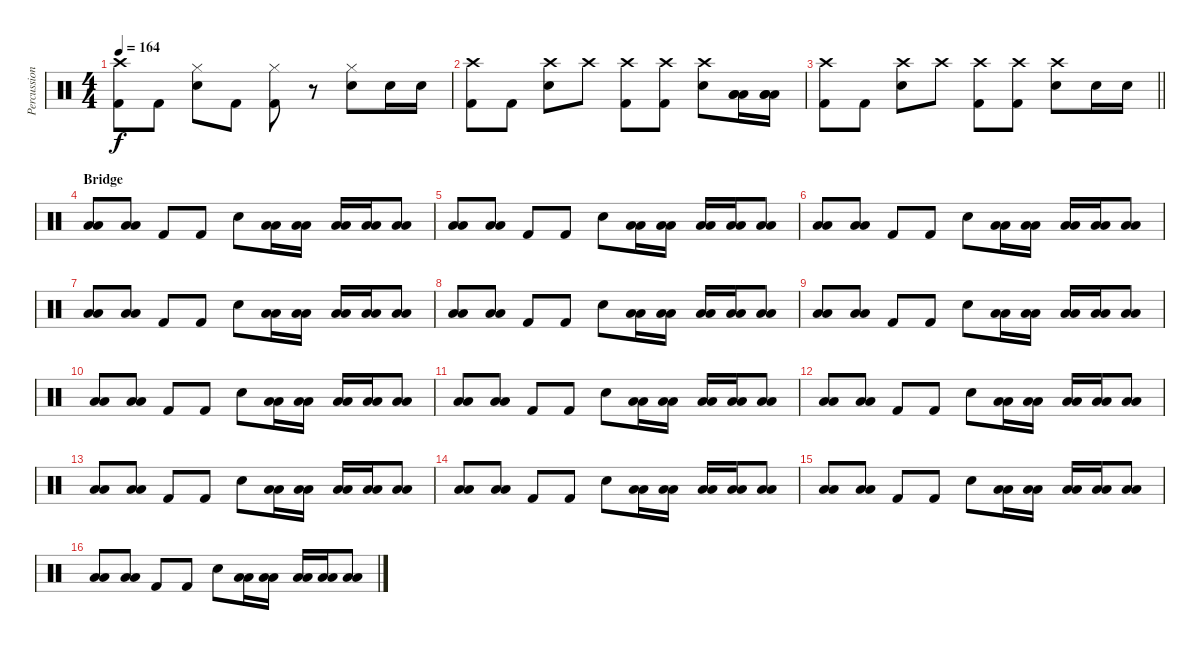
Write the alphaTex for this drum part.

\track ("Percussion" "Percussion") {instrument percussion}
\staff {score}
\articulation defaults
\ts (4 4)
\tempo 164
\clef neutral
\ks c
("Kick (hit) 2" "Crash high (hit)").8{dy f} "Kick (hit) 2".8 ("Snare (hit) 2" "Hi-Hat (closed)").8 "Kick (hit) 2".8 ("Kick (hit) 2" "Hi-Hat (closed)").8 r.8 ("Snare (hit) 2" "Hi-Hat (closed)").8 "Snare (hit) 2".16 "Snare (hit) 2".16 |
("Kick (hit) 2" "Crash high (hit)").8 "Kick (hit) 2".8 ("Crash high (hit)" "Snare (hit) 2").8 "Crash high (hit)".8 ("Kick (hit) 2" "Crash high (hit)").8 ("Kick (hit) 2" "Crash high (hit)").8 ("Crash high (hit)" "Snare (hit) 2").8 ("Low Floor Tom (hit)" "Low Floor Tom (hit)" "Low Floor Tom (hit)").16 ("Low Floor Tom (hit)" "Low Floor Tom (hit)" "Low Floor Tom (hit)").16 |
\barLineRight lightlight
("Kick (hit) 2" "Crash high (hit)").8 "Kick (hit) 2".8 ("Crash high (hit)" "Snare (hit) 2").8 "Crash high (hit)".8 ("Kick (hit) 2" "Crash high (hit)").8 ("Kick (hit) 2" "Crash high (hit)").8 ("Crash high (hit)" "Snare (hit) 2").8 "Snare (hit) 2".16 "Snare (hit) 2".16 |
\section ("" "Bridge")
("Low Floor Tom (hit)" "Low Tom (hit)").8 ("Low Floor Tom (hit)" "Low Tom (hit)").8 "Kick (hit) 2".8 "Kick (hit) 2".8 "Snare (hit) 2".8 ("Low Tom (hit)" "Low Tom (hit)").16 ("Low Tom (hit)" "Low Tom (hit)").16 ("Low Floor Tom (hit)" "Low Floor Tom (hit)").16 ("Low Floor Tom (hit)" "Low Floor Tom (hit)").16 ("Low Floor Tom (hit)" "Low Floor Tom (hit)").8 |
("Low Floor Tom (hit)" "Low Tom (hit)").8 ("Low Floor Tom (hit)" "Low Tom (hit)").8 "Kick (hit) 2".8 "Kick (hit) 2".8 "Snare (hit) 2".8 ("Low Tom (hit)" "Low Tom (hit)").16 ("Low Tom (hit)" "Low Tom (hit)").16 ("Low Floor Tom (hit)" "Low Floor Tom (hit)").16 ("Low Floor Tom (hit)" "Low Floor Tom (hit)").16 ("Low Floor Tom (hit)" "Low Floor Tom (hit)").8 |
("Low Floor Tom (hit)" "Low Tom (hit)").8 ("Low Floor Tom (hit)" "Low Tom (hit)").8 "Kick (hit) 2".8 "Kick (hit) 2".8 "Snare (hit) 2".8 ("Low Tom (hit)" "Low Tom (hit)").16 ("Low Tom (hit)" "Low Tom (hit)").16 ("Low Floor Tom (hit)" "Low Floor Tom (hit)").16 ("Low Floor Tom (hit)" "Low Floor Tom (hit)").16 ("Low Floor Tom (hit)" "Low Floor Tom (hit)").8 |
("Low Floor Tom (hit)" "Low Tom (hit)").8 ("Low Floor Tom (hit)" "Low Tom (hit)").8 "Kick (hit) 2".8 "Kick (hit) 2".8 "Snare (hit) 2".8 ("Low Tom (hit)" "Low Tom (hit)").16 ("Low Tom (hit)" "Low Tom (hit)").16 ("Low Floor Tom (hit)" "Low Floor Tom (hit)").16 ("Low Floor Tom (hit)" "Low Floor Tom (hit)").16 ("Low Floor Tom (hit)" "Low Floor Tom (hit)").8 |
("Low Floor Tom (hit)" "Low Tom (hit)").8 ("Low Floor Tom (hit)" "Low Tom (hit)").8 "Kick (hit) 2".8 "Kick (hit) 2".8 "Snare (hit) 2".8 ("Low Tom (hit)" "Low Tom (hit)").16 ("Low Tom (hit)" "Low Tom (hit)").16 ("Low Floor Tom (hit)" "Low Floor Tom (hit)").16 ("Low Floor Tom (hit)" "Low Floor Tom (hit)").16 ("Low Floor Tom (hit)" "Low Floor Tom (hit)").8 |
("Low Floor Tom (hit)" "Low Tom (hit)").8 ("Low Floor Tom (hit)" "Low Tom (hit)").8 "Kick (hit) 2".8 "Kick (hit) 2".8 "Snare (hit) 2".8 ("Low Tom (hit)" "Low Tom (hit)").16 ("Low Tom (hit)" "Low Tom (hit)").16 ("Low Floor Tom (hit)" "Low Floor Tom (hit)").16 ("Low Floor Tom (hit)" "Low Floor Tom (hit)").16 ("Low Floor Tom (hit)" "Low Floor Tom (hit)").8 |
("Low Floor Tom (hit)" "Low Tom (hit)").8 ("Low Floor Tom (hit)" "Low Tom (hit)").8 "Kick (hit) 2".8 "Kick (hit) 2".8 "Snare (hit) 2".8 ("Low Tom (hit)" "Low Tom (hit)").16 ("Low Tom (hit)" "Low Tom (hit)").16 ("Low Floor Tom (hit)" "Low Floor Tom (hit)").16 ("Low Floor Tom (hit)" "Low Floor Tom (hit)").16 ("Low Floor Tom (hit)" "Low Floor Tom (hit)").8 |
("Low Floor Tom (hit)" "Low Tom (hit)").8 ("Low Floor Tom (hit)" "Low Tom (hit)").8 "Kick (hit) 2".8 "Kick (hit) 2".8 "Snare (hit) 2".8 ("Low Tom (hit)" "Low Tom (hit)").16 ("Low Tom (hit)" "Low Tom (hit)").16 ("Low Floor Tom (hit)" "Low Floor Tom (hit)").16 ("Low Floor Tom (hit)" "Low Floor Tom (hit)").16 ("Low Floor Tom (hit)" "Low Floor Tom (hit)").8 |
("Low Floor Tom (hit)" "Low Tom (hit)").8 ("Low Floor Tom (hit)" "Low Tom (hit)").8 "Kick (hit) 2".8 "Kick (hit) 2".8 "Snare (hit) 2".8 ("Low Tom (hit)" "Low Tom (hit)").16 ("Low Tom (hit)" "Low Tom (hit)").16 ("Low Floor Tom (hit)" "Low Floor Tom (hit)").16 ("Low Floor Tom (hit)" "Low Floor Tom (hit)").16 ("Low Floor Tom (hit)" "Low Floor Tom (hit)").8 |
("Low Floor Tom (hit)" "Low Tom (hit)").8 ("Low Floor Tom (hit)" "Low Tom (hit)").8 "Kick (hit) 2".8 "Kick (hit) 2".8 "Snare (hit) 2".8 ("Low Tom (hit)" "Low Tom (hit)").16 ("Low Tom (hit)" "Low Tom (hit)").16 ("Low Floor Tom (hit)" "Low Floor Tom (hit)").16 ("Low Floor Tom (hit)" "Low Floor Tom (hit)").16 ("Low Floor Tom (hit)" "Low Floor Tom (hit)").8 |
("Low Floor Tom (hit)" "Low Tom (hit)").8 ("Low Floor Tom (hit)" "Low Tom (hit)").8 "Kick (hit) 2".8 "Kick (hit) 2".8 "Snare (hit) 2".8 ("Low Tom (hit)" "Low Tom (hit)").16 ("Low Tom (hit)" "Low Tom (hit)").16 ("Low Floor Tom (hit)" "Low Floor Tom (hit)").16 ("Low Floor Tom (hit)" "Low Floor Tom (hit)").16 ("Low Floor Tom (hit)" "Low Floor Tom (hit)").8 |
("Low Floor Tom (hit)" "Low Tom (hit)").8 ("Low Floor Tom (hit)" "Low Tom (hit)").8 "Kick (hit) 2".8 "Kick (hit) 2".8 "Snare (hit) 2".8 ("Low Tom (hit)" "Low Tom (hit)").16 ("Low Tom (hit)" "Low Tom (hit)").16 ("Low Floor Tom (hit)" "Low Floor Tom (hit)").16 ("Low Floor Tom (hit)" "Low Floor Tom (hit)").16 ("Low Floor Tom (hit)" "Low Floor Tom (hit)").8 |
("Low Floor Tom (hit)" "Low Tom (hit)").8 ("Low Floor Tom (hit)" "Low Tom (hit)").8 "Kick (hit) 2".8 "Kick (hit) 2".8 "Snare (hit) 2".8 ("Low Tom (hit)" "Low Tom (hit)").16 ("Low Tom (hit)" "Low Tom (hit)").16 ("Low Floor Tom (hit)" "Low Floor Tom (hit)").16 ("Low Floor Tom (hit)" "Low Floor Tom (hit)").16 ("Low Floor Tom (hit)" "Low Floor Tom (hit)").8
